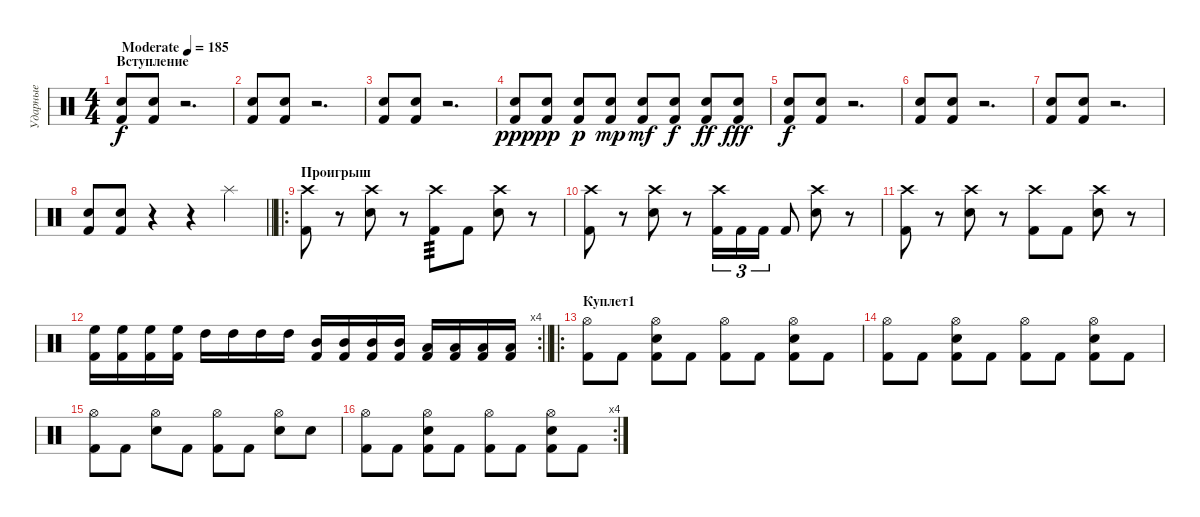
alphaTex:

\track ("Ударные" "Ударные") {instrument percussion}
\staff {score}
\articulation defaults
\ts (4 4)
\section ("" "Вступление")
\tempo (185 "Moderate")
\clef neutral
\ks c
("Electric Snare (hit)" "Kick (hit) 2").8{dy f} ("Electric Snare (hit)" "Kick (hit) 2").8 r.2{d} |
("Electric Snare (hit)" "Kick (hit) 2").8 ("Electric Snare (hit)" "Kick (hit) 2").8 r.2{d} |
("Electric Snare (hit)" "Kick (hit) 2").8 ("Electric Snare (hit)" "Kick (hit) 2").8 r.2{d} |
("Electric Snare (hit)" "Kick (hit) 2").8{dy ppp} ("Electric Snare (hit)" "Kick (hit) 2").8{dy pp} ("Electric Snare (hit)" "Kick (hit) 2").8{dy p} ("Electric Snare (hit)" "Kick (hit) 2").8{dy mp} ("Electric Snare (hit)" "Kick (hit) 2").8{dy mf} ("Electric Snare (hit)" "Kick (hit) 2").8{dy f} ("Electric Snare (hit)" "Kick (hit) 2").8{dy ff} ("Electric Snare (hit)" "Kick (hit) 2").8{dy fff} |
("Electric Snare (hit)" "Kick (hit) 2").8{dy f} ("Electric Snare (hit)" "Kick (hit) 2").8 r.2{d} |
("Electric Snare (hit)" "Kick (hit) 2").8 ("Electric Snare (hit)" "Kick (hit) 2").8 r.2{d} |
("Electric Snare (hit)" "Kick (hit) 2").8 ("Electric Snare (hit)" "Kick (hit) 2").8 r.2{d} |
\barLineRight lightlight
("Electric Snare (hit)" "Kick (hit) 2").8 ("Electric Snare (hit)" "Kick (hit) 2").8 r.4 r.4 "Splash (hit)".4 |
\ro
\section ("" "Проигрыш")
("Kick (hit) 2" "Crash high (hit)").8 r.8 ("Electric Snare (hit)" "Crash high (hit)").8 r.8 ("Kick (hit) 2" "Crash high (hit)").8{tp 3} "Kick (hit) 2".8 ("Electric Snare (hit)" "Crash high (hit)").8 r.8 |
("Kick (hit) 2" "Crash high (hit)").8 r.8 ("Electric Snare (hit)" "Crash high (hit)").8 r.8 ("Kick (hit) 2" "Crash high (hit)").16{tu (3 2)} "Kick (hit) 2".16{tu (3 2)} "Kick (hit) 2".16{tu (3 2)} "Kick (hit) 2".8 ("Electric Snare (hit)" "Crash high (hit)").8 r.8 |
("Kick (hit) 2" "Crash high (hit)").8 r.8 ("Electric Snare (hit)" "Crash high (hit)").8 r.8 ("Kick (hit) 2" "Crash high (hit)").8 "Kick (hit) 2".8 ("Electric Snare (hit)" "Crash high (hit)").8 r.8 |
\rc 4
\barLineRight lightlight
("High Floor Tom (hit)" "Kick (hit) 2").16 ("High Floor Tom (hit)" "Kick (hit) 2").16 ("High Floor Tom (hit)" "Kick (hit) 2").16 ("High Floor Tom (hit)" "Kick (hit) 2").16 "High Tom (hit)".16 "High Tom (hit)".16 "High Tom (hit)".16 "High Tom (hit)".16 ("Mid Tom (hit)" "Kick (hit) 2").16 ("Mid Tom (hit)" "Kick (hit) 2").16 ("Mid Tom (hit)" "Kick (hit) 2").16 ("Mid Tom (hit)" "Kick (hit) 2").16 ("Low Tom (hit)" "Kick (hit) 2").16 ("Low Tom (hit)" "Kick (hit) 2").16 ("Low Tom (hit)" "Kick (hit) 2").16 ("Low Tom (hit)" "Kick (hit) 2").16 |
\ro
\section ("" "Куплет1")
("Hi-Hat (open)" "Kick (hit) 2").8 "Kick (hit) 2".8 ("Hi-Hat (open)" "Electric Snare (hit)" "Kick (hit) 2").8 "Kick (hit) 2".8 ("Hi-Hat (open)" "Kick (hit) 2").8 "Kick (hit) 2".8 ("Hi-Hat (open)" "Electric Snare (hit)" "Kick (hit) 2").8 "Kick (hit) 2".8 |
("Hi-Hat (open)" "Kick (hit) 2").8 "Kick (hit) 2".8 ("Hi-Hat (open)" "Electric Snare (hit)" "Kick (hit) 2").8 "Kick (hit) 2".8 ("Hi-Hat (open)" "Kick (hit) 2").8 "Kick (hit) 2".8 ("Hi-Hat (open)" "Electric Snare (hit)" "Kick (hit) 2").8 "Kick (hit) 2".8 |
("Kick (hit) 2" "Hi-Hat (open)").8 "Kick (hit) 2".8 ("Electric Snare (hit)" "Hi-Hat (open)").8 "Kick (hit) 2".8 ("Kick (hit) 2" "Hi-Hat (open)").8 "Kick (hit) 2".8 ("Electric Snare (hit)" "Hi-Hat (open)").8 "Electric Snare (hit)".8 |
\rc 4
("Hi-Hat (open)" "Kick (hit) 2").8 "Kick (hit) 2".8 ("Hi-Hat (open)" "Electric Snare (hit)" "Kick (hit) 2").8 "Kick (hit) 2".8 ("Hi-Hat (open)" "Kick (hit) 2").8 "Kick (hit) 2".8 ("Hi-Hat (open)" "Electric Snare (hit)" "Kick (hit) 2").8 "Kick (hit) 2".8
